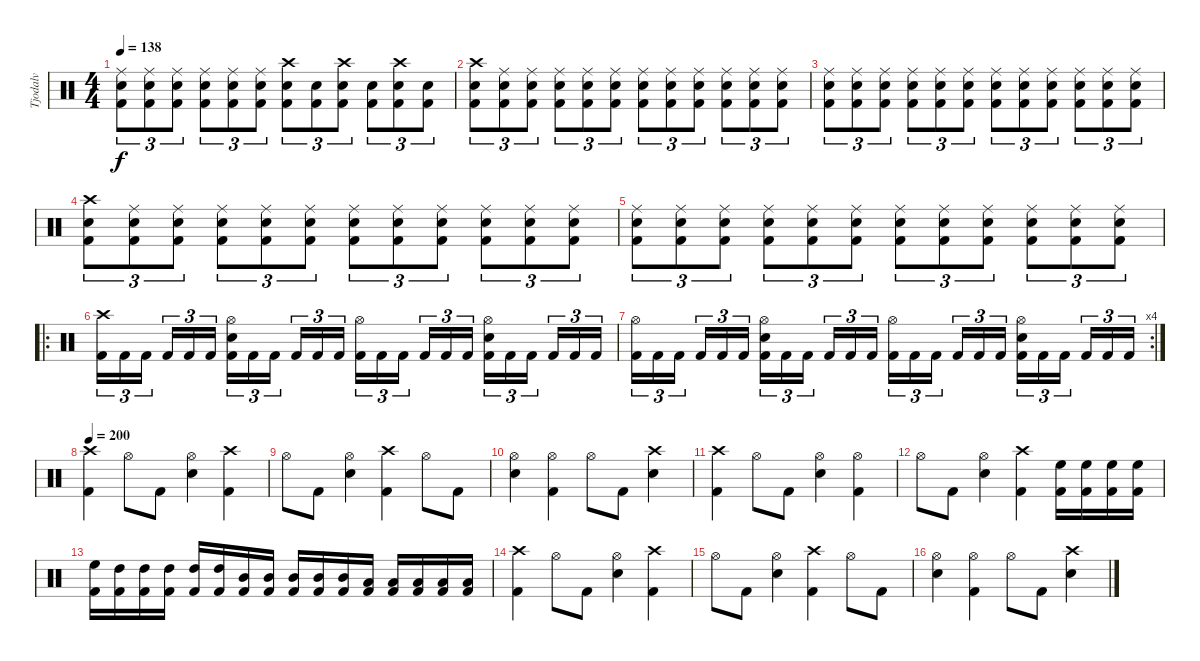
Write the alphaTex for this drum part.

\track ("Tjodalv" "Tjodalv") {instrument percussion}
\staff {score}
\articulation defaults
\ts (4 4)
\tempo 138
\clef neutral
\ks c
("Kick (hit) 2" "Snare (hit) 2" "Ride (middle)").8{tu (3 2) dy f} ("Kick (hit) 2" "Snare (hit) 2" "Ride (middle)").8{tu (3 2)} ("Kick (hit) 2" "Snare (hit) 2" "Ride (middle)").8{tu (3 2)} ("Kick (hit) 2" "Snare (hit) 2" "Ride (middle)").8{tu (3 2)} ("Kick (hit) 2" "Snare (hit) 2" "Ride (middle)").8{tu (3 2)} ("Kick (hit) 2" "Snare (hit) 2" "Ride (middle)").8{tu (3 2)} ("Kick (hit) 2" "Snare (hit) 2" "Crash high (hit)").8{tu (3 2)} ("Kick (hit) 2" "Snare (hit) 2").8{tu (3 2)} ("Kick (hit) 2" "Snare (hit) 2" "Crash high (hit)").8{tu (3 2)} ("Kick (hit) 2" "Snare (hit) 2").8{tu (3 2)} ("Kick (hit) 2" "Snare (hit) 2" "Crash high (hit)").8{tu (3 2)} ("Kick (hit) 2" "Snare (hit) 2").8{tu (3 2)} |
("Kick (hit) 2" "Snare (hit) 2" "Crash high (hit)").8{tu (3 2)} ("Kick (hit) 2" "Snare (hit) 2" "Ride (middle)").8{tu (3 2)} ("Kick (hit) 2" "Snare (hit) 2" "Ride (middle)").8{tu (3 2)} ("Kick (hit) 2" "Snare (hit) 2" "Ride (middle)").8{tu (3 2)} ("Kick (hit) 2" "Snare (hit) 2" "Ride (middle)").8{tu (3 2)} ("Kick (hit) 2" "Snare (hit) 2" "Ride (middle)").8{tu (3 2)} ("Kick (hit) 2" "Snare (hit) 2" "Ride (middle)").8{tu (3 2)} ("Kick (hit) 2" "Snare (hit) 2" "Ride (middle)").8{tu (3 2)} ("Kick (hit) 2" "Snare (hit) 2" "Ride (middle)").8{tu (3 2)} ("Kick (hit) 2" "Snare (hit) 2" "Ride (middle)").8{tu (3 2)} ("Kick (hit) 2" "Snare (hit) 2" "Ride (middle)").8{tu (3 2)} ("Kick (hit) 2" "Snare (hit) 2" "Ride (middle)").8{tu (3 2)} |
("Kick (hit) 2" "Snare (hit) 2" "Ride (middle)").8{tu (3 2)} ("Kick (hit) 2" "Snare (hit) 2" "Ride (middle)").8{tu (3 2)} ("Kick (hit) 2" "Snare (hit) 2" "Ride (middle)").8{tu (3 2)} ("Kick (hit) 2" "Snare (hit) 2" "Ride (middle)").8{tu (3 2)} ("Kick (hit) 2" "Snare (hit) 2" "Ride (middle)").8{tu (3 2)} ("Kick (hit) 2" "Snare (hit) 2" "Ride (middle)").8{tu (3 2)} ("Kick (hit) 2" "Snare (hit) 2" "Ride (middle)").8{tu (3 2)} ("Kick (hit) 2" "Snare (hit) 2" "Ride (middle)").8{tu (3 2)} ("Kick (hit) 2" "Snare (hit) 2" "Ride (middle)").8{tu (3 2)} ("Kick (hit) 2" "Snare (hit) 2" "Ride (middle)").8{tu (3 2)} ("Kick (hit) 2" "Snare (hit) 2" "Ride (middle)").8{tu (3 2)} ("Kick (hit) 2" "Snare (hit) 2" "Ride (middle)").8{tu (3 2)} |
("Kick (hit) 2" "Snare (hit) 2" "Crash high (hit)").8{tu (3 2)} ("Kick (hit) 2" "Snare (hit) 2" "Ride (middle)").8{tu (3 2)} ("Kick (hit) 2" "Snare (hit) 2" "Ride (middle)").8{tu (3 2)} ("Kick (hit) 2" "Snare (hit) 2" "Ride (middle)").8{tu (3 2)} ("Kick (hit) 2" "Snare (hit) 2" "Ride (middle)").8{tu (3 2)} ("Kick (hit) 2" "Snare (hit) 2" "Ride (middle)").8{tu (3 2)} ("Kick (hit) 2" "Snare (hit) 2" "Ride (middle)").8{tu (3 2)} ("Kick (hit) 2" "Snare (hit) 2" "Ride (middle)").8{tu (3 2)} ("Kick (hit) 2" "Snare (hit) 2" "Ride (middle)").8{tu (3 2)} ("Kick (hit) 2" "Snare (hit) 2" "Ride (middle)").8{tu (3 2)} ("Kick (hit) 2" "Snare (hit) 2" "Ride (middle)").8{tu (3 2)} ("Kick (hit) 2" "Snare (hit) 2" "Ride (middle)").8{tu (3 2)} |
("Kick (hit) 2" "Snare (hit) 2" "Ride (middle)").8{tu (3 2)} ("Kick (hit) 2" "Snare (hit) 2" "Ride (middle)").8{tu (3 2)} ("Kick (hit) 2" "Snare (hit) 2" "Ride (middle)").8{tu (3 2)} ("Kick (hit) 2" "Snare (hit) 2" "Ride (middle)").8{tu (3 2)} ("Kick (hit) 2" "Snare (hit) 2" "Ride (middle)").8{tu (3 2)} ("Kick (hit) 2" "Snare (hit) 2" "Ride (middle)").8{tu (3 2)} ("Kick (hit) 2" "Snare (hit) 2" "Ride (middle)").8{tu (3 2)} ("Kick (hit) 2" "Snare (hit) 2" "Ride (middle)").8{tu (3 2)} ("Kick (hit) 2" "Snare (hit) 2" "Ride (middle)").8{tu (3 2)} ("Kick (hit) 2" "Snare (hit) 2" "Ride (middle)").8{tu (3 2)} ("Kick (hit) 2" "Snare (hit) 2" "Ride (middle)").8{tu (3 2)} ("Kick (hit) 2" "Snare (hit) 2" "Ride (middle)").8{tu (3 2)} |
\ro
("Kick (hit) 2" "Crash high (hit)").16{tu (3 2)} "Kick (hit) 2".16{tu (3 2)} "Kick (hit) 2".16{tu (3 2)} "Kick (hit) 2".16{tu (3 2)} "Kick (hit) 2".16{tu (3 2)} "Kick (hit) 2".16{tu (3 2)} ("Kick (hit) 2" "Snare (hit) 2" "Hi-Hat (open)").16{tu (3 2)} "Kick (hit) 2".16{tu (3 2)} "Kick (hit) 2".16{tu (3 2)} "Kick (hit) 2".16{tu (3 2)} "Kick (hit) 2".16{tu (3 2)} "Kick (hit) 2".16{tu (3 2)} ("Kick (hit) 2" "Hi-Hat (open)").16{tu (3 2)} "Kick (hit) 2".16{tu (3 2)} "Kick (hit) 2".16{tu (3 2)} "Kick (hit) 2".16{tu (3 2)} "Kick (hit) 2".16{tu (3 2)} "Kick (hit) 2".16{tu (3 2)} ("Kick (hit) 2" "Snare (hit) 2" "Hi-Hat (open)").16{tu (3 2)} "Kick (hit) 2".16{tu (3 2)} "Kick (hit) 2".16{tu (3 2)} "Kick (hit) 2".16{tu (3 2)} "Kick (hit) 2".16{tu (3 2)} "Kick (hit) 2".16{tu (3 2)} |
\rc 4
("Kick (hit) 2" "Hi-Hat (open)").16{tu (3 2)} "Kick (hit) 2".16{tu (3 2)} "Kick (hit) 2".16{tu (3 2)} "Kick (hit) 2".16{tu (3 2)} "Kick (hit) 2".16{tu (3 2)} "Kick (hit) 2".16{tu (3 2)} ("Kick (hit) 2" "Snare (hit) 2" "Hi-Hat (open)").16{tu (3 2)} "Kick (hit) 2".16{tu (3 2)} "Kick (hit) 2".16{tu (3 2)} "Kick (hit) 2".16{tu (3 2)} "Kick (hit) 2".16{tu (3 2)} "Kick (hit) 2".16{tu (3 2)} ("Kick (hit) 2" "Hi-Hat (open)").16{tu (3 2)} "Kick (hit) 2".16{tu (3 2)} "Kick (hit) 2".16{tu (3 2)} "Kick (hit) 2".16{tu (3 2)} "Kick (hit) 2".16{tu (3 2)} "Kick (hit) 2".16{tu (3 2)} ("Kick (hit) 2" "Snare (hit) 2" "Hi-Hat (open)").16{tu (3 2)} "Kick (hit) 2".16{tu (3 2)} "Kick (hit) 2".16{tu (3 2)} "Kick (hit) 2".16{tu (3 2)} "Kick (hit) 2".16{tu (3 2)} "Kick (hit) 2".16{tu (3 2)} |
\tempo 200
("Kick (hit) 2" "Crash high (hit)").4 "Hi-Hat (open)".8 "Kick (hit) 2".8 ("Snare (hit) 2" "Hi-Hat (open)").4 ("Kick (hit) 2" "Crash high (hit)").4 |
"Hi-Hat (open)".8 "Kick (hit) 2".8 ("Snare (hit) 2" "Hi-Hat (open)").4 ("Kick (hit) 2" "Crash high (hit)").4 "Hi-Hat (open)".8 "Kick (hit) 2".8 |
("Snare (hit) 2" "Hi-Hat (open)").4 ("Kick (hit) 2" "Hi-Hat (open)").4 "Hi-Hat (open)".8 "Kick (hit) 2".8 ("Snare (hit) 2" "Crash high (hit)").4 |
("Kick (hit) 2" "Crash high (hit)").4 "Hi-Hat (open)".8 "Kick (hit) 2".8 ("Snare (hit) 2" "Hi-Hat (open)").4 ("Kick (hit) 2" "Hi-Hat (open)").4 |
"Hi-Hat (open)".8 "Kick (hit) 2".8 ("Snare (hit) 2" "Hi-Hat (open)").4 ("Kick (hit) 2" "Crash high (hit)").4 ("Kick (hit) 2" "High Floor Tom (hit)").16 ("Kick (hit) 2" "High Floor Tom (hit)").16 ("Kick (hit) 2" "High Floor Tom (hit)").16 ("Kick (hit) 2" "High Floor Tom (hit)").16 |
("Kick (hit) 2" "High Floor Tom (hit)").16 ("Kick (hit) 2" "High Tom (hit)").16 ("Kick (hit) 2" "High Tom (hit)").16 ("Kick (hit) 2" "High Tom (hit)").16 ("Kick (hit) 2" "High Tom (hit)").16 ("Kick (hit) 2" "High Tom (hit)").16 ("Kick (hit) 2" "Mid Tom (hit)").16 ("Kick (hit) 2" "Mid Tom (hit)").16 ("Kick (hit) 2" "Mid Tom (hit)").16 ("Kick (hit) 2" "Mid Tom (hit)").16 ("Kick (hit) 2" "Mid Tom (hit)").16 ("Kick (hit) 2" "Low Tom (hit)").16 ("Kick (hit) 2" "Low Tom (hit)").16 ("Kick (hit) 2" "Low Tom (hit)").16 ("Kick (hit) 2" "Low Tom (hit)").16 ("Kick (hit) 2" "Low Tom (hit)").16 |
("Kick (hit) 2" "Crash high (hit)").4 "Hi-Hat (open)".8 "Kick (hit) 2".8 ("Snare (hit) 2" "Hi-Hat (open)").4 ("Kick (hit) 2" "Crash high (hit)").4 |
"Hi-Hat (open)".8 "Kick (hit) 2".8 ("Snare (hit) 2" "Hi-Hat (open)").4 ("Kick (hit) 2" "Crash high (hit)").4 "Hi-Hat (open)".8 "Kick (hit) 2".8 |
("Snare (hit) 2" "Hi-Hat (open)").4 ("Kick (hit) 2" "Hi-Hat (open)").4 "Hi-Hat (open)".8 "Kick (hit) 2".8 ("Snare (hit) 2" "Crash high (hit)").4
